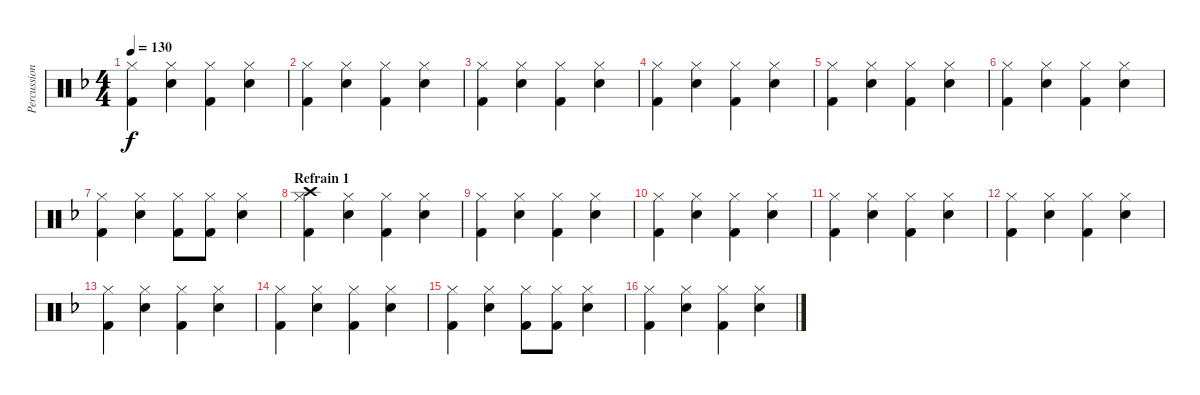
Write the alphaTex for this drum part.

\track ("Percussions" "Percussion") {instrument percussion}
\staff {score}
\articulation defaults
\ts (4 4)
\tempo 130
\clef neutral
\ks f
("Kick (hit) 2" "Hi-Hat (closed)").4{dy f} ("Snare (hit) 2" "Hi-Hat (closed)").4 ("Kick (hit) 2" "Hi-Hat (closed)").4 ("Snare (hit) 2" "Hi-Hat (closed)").4 |
("Kick (hit) 2" "Hi-Hat (closed)").4 ("Snare (hit) 2" "Hi-Hat (closed)").4 ("Kick (hit) 2" "Hi-Hat (closed)").4 ("Snare (hit) 2" "Hi-Hat (closed)").4 |
("Kick (hit) 2" "Hi-Hat (closed)").4 ("Snare (hit) 2" "Hi-Hat (closed)").4 ("Kick (hit) 2" "Hi-Hat (closed)").4 ("Snare (hit) 2" "Hi-Hat (closed)").4 |
("Kick (hit) 2" "Hi-Hat (closed)").4 ("Snare (hit) 2" "Hi-Hat (closed)").4 ("Kick (hit) 2" "Hi-Hat (closed)").4 ("Snare (hit) 2" "Hi-Hat (closed)").4 |
("Kick (hit) 2" "Hi-Hat (closed)").4 ("Snare (hit) 2" "Hi-Hat (closed)").4 ("Kick (hit) 2" "Hi-Hat (closed)").4 ("Snare (hit) 2" "Hi-Hat (closed)").4 |
("Kick (hit) 2" "Hi-Hat (closed)").4 ("Snare (hit) 2" "Hi-Hat (closed)").4 ("Kick (hit) 2" "Hi-Hat (closed)").4 ("Snare (hit) 2" "Hi-Hat (closed)").4 |
("Kick (hit) 2" "Hi-Hat (closed)").4 ("Snare (hit) 2" "Hi-Hat (closed)").4 ("Kick (hit) 2" "Hi-Hat (closed)").8 ("Kick (hit) 2" "Hi-Hat (closed)").8 ("Snare (hit) 2" "Hi-Hat (closed)").4 |
\section ("" "Refrain 1")
("Kick (hit) 2" "Hi-Hat (closed)" "Crash high (hit)").4 ("Snare (hit) 2" "Hi-Hat (closed)").4 ("Kick (hit) 2" "Hi-Hat (closed)").4 ("Snare (hit) 2" "Hi-Hat (closed)").4 |
("Kick (hit) 2" "Hi-Hat (closed)").4 ("Snare (hit) 2" "Hi-Hat (closed)").4 ("Kick (hit) 2" "Hi-Hat (closed)").4 ("Snare (hit) 2" "Hi-Hat (closed)").4 |
("Kick (hit) 2" "Hi-Hat (closed)").4 ("Snare (hit) 2" "Hi-Hat (closed)").4 ("Kick (hit) 2" "Hi-Hat (closed)").4 ("Snare (hit) 2" "Hi-Hat (closed)").4 |
("Kick (hit) 2" "Hi-Hat (closed)").4 ("Snare (hit) 2" "Hi-Hat (closed)").4 ("Kick (hit) 2" "Hi-Hat (closed)").4 ("Snare (hit) 2" "Hi-Hat (closed)").4 |
("Kick (hit) 2" "Hi-Hat (closed)").4 ("Snare (hit) 2" "Hi-Hat (closed)").4 ("Kick (hit) 2" "Hi-Hat (closed)").4 ("Snare (hit) 2" "Hi-Hat (closed)").4 |
("Kick (hit) 2" "Hi-Hat (closed)").4 ("Snare (hit) 2" "Hi-Hat (closed)").4 ("Kick (hit) 2" "Hi-Hat (closed)").4 ("Snare (hit) 2" "Hi-Hat (closed)").4 |
("Kick (hit) 2" "Hi-Hat (closed)").4 ("Snare (hit) 2" "Hi-Hat (closed)").4 ("Kick (hit) 2" "Hi-Hat (closed)").4 ("Snare (hit) 2" "Hi-Hat (closed)").4 |
("Kick (hit) 2" "Hi-Hat (closed)").4 ("Snare (hit) 2" "Hi-Hat (closed)").4 ("Kick (hit) 2" "Hi-Hat (closed)").8 ("Kick (hit) 2" "Hi-Hat (closed)").8 ("Snare (hit) 2" "Hi-Hat (closed)").4 |
("Kick (hit) 2" "Hi-Hat (closed)").4 ("Snare (hit) 2" "Hi-Hat (closed)").4 ("Kick (hit) 2" "Hi-Hat (closed)").4 ("Snare (hit) 2" "Hi-Hat (closed)").4
